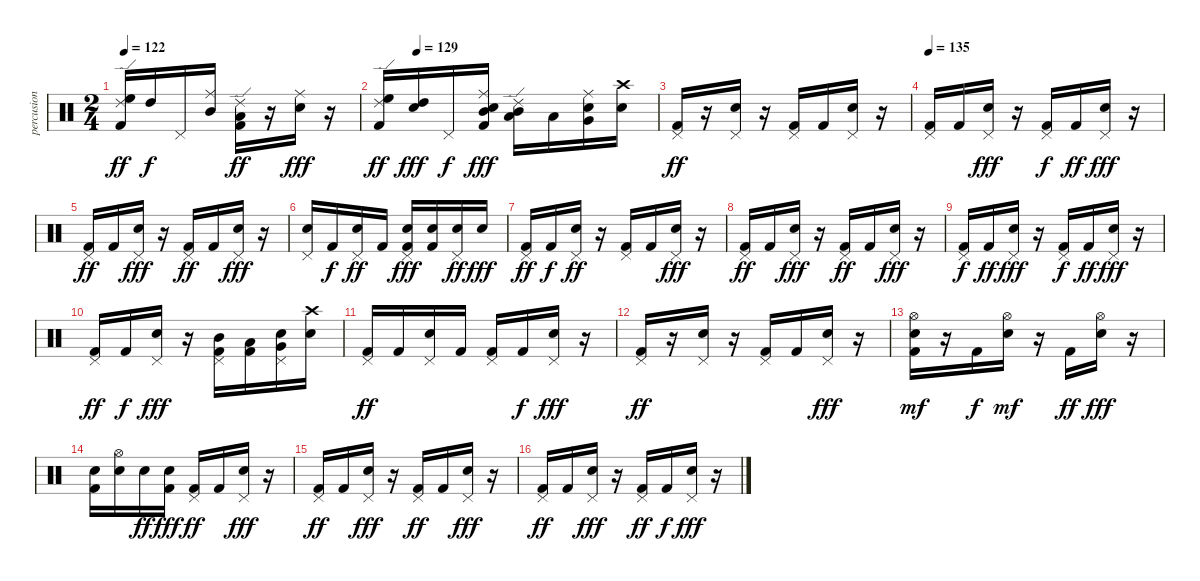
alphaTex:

\track ("percusion" "percusion") {instrument percussion}
\staff {score}
\articulation defaults
\ts (2 4)
\tempo 122
\clef neutral
\ks c
("Kick (hit) 2" "High Floor Tom (hit)" "Ride (edge) 2").16{dy ff} "High Tom (hit)".16{dy f} "Pedal Hi-Hat (hit)".16 ("Mid Tom (hit)" "Ride (middle)").16 ("Kick (hit) 2" "Ride (edge) 2" "Low Tom (hit)").16{dy ff} r.16 ("Electric Snare (hit)" "Ride (middle)").16{dy fff} r.16 |
\tempo (129 0.125)
("Kick (hit) 2" "High Floor Tom (hit)" "Ride (edge) 2").16{dy ff} ("Electric Snare (hit)" "High Tom (hit)").16{dy fff} "Pedal Hi-Hat (hit)".16{dy f} ("Kick (hit) 2" "Electric Snare (hit)" "Mid Tom (hit)" "Ride (middle)").16{dy fff} ("Mid Tom (hit)" "Ride (edge) 2" "Low Tom (hit)").16 "Low Tom (hit)".16 ("Electric Snare (hit)" "Very Low Tom (hit)" "Ride (middle)").16 ("Electric Snare (hit)" "Crash high (hit)").16 |
("Kick (hit) 2" "Pedal Hi-Hat (hit)").16{dy ff} r.16 ("Electric Snare (hit)" "Pedal Hi-Hat (hit)").16 r.16 ("Kick (hit) 2" "Pedal Hi-Hat (hit)").16 "Kick (hit) 2".16 ("Electric Snare (hit)" "Pedal Hi-Hat (hit)").16 r.16 |
\tempo 135
("Kick (hit) 2" "Pedal Hi-Hat (hit)").16 "Kick (hit) 2".16 ("Electric Snare (hit)" "Pedal Hi-Hat (hit)").16{dy fff} r.16 ("Kick (hit) 2" "Pedal Hi-Hat (hit)").16{dy f} "Kick (hit) 2".16{dy ff} ("Electric Snare (hit)" "Pedal Hi-Hat (hit)").16{dy fff} r.16 |
("Kick (hit) 2" "Pedal Hi-Hat (hit)").16{dy ff} "Kick (hit) 2".16 ("Electric Snare (hit)" "Pedal Hi-Hat (hit)").16{dy fff} r.16 ("Kick (hit) 2" "Pedal Hi-Hat (hit)").16{dy ff} "Kick (hit) 2".16 ("Electric Snare (hit)" "Pedal Hi-Hat (hit)").16{dy fff} r.16 |
("Electric Snare (hit)" "Pedal Hi-Hat (hit)").16 "Kick (hit) 2".16{dy f} ("Electric Snare (hit)" "Pedal Hi-Hat (hit)").16{dy ff} "Kick (hit) 2".16 ("Kick (hit) 2" "Electric Snare (hit)" "Pedal Hi-Hat (hit)").16{dy fff} ("Kick (hit) 2" "Electric Snare (hit)").16 ("Electric Snare (hit)" "Pedal Hi-Hat (hit)").16{dy ff} "Electric Snare (hit)".16{dy fff} |
("Kick (hit) 2" "Pedal Hi-Hat (hit)").16{dy ff} "Kick (hit) 2".16{dy f} ("Electric Snare (hit)" "Pedal Hi-Hat (hit)").16{dy ff} r.16 ("Kick (hit) 2" "Pedal Hi-Hat (hit)").16 "Kick (hit) 2".16 ("Electric Snare (hit)" "Pedal Hi-Hat (hit)").16{dy fff} r.16 |
("Kick (hit) 2" "Pedal Hi-Hat (hit)").16{dy ff} "Kick (hit) 2".16 ("Electric Snare (hit)" "Pedal Hi-Hat (hit)").16{dy fff} r.16 ("Kick (hit) 2" "Pedal Hi-Hat (hit)").16{dy ff} "Kick (hit) 2".16 ("Electric Snare (hit)" "Pedal Hi-Hat (hit)").16{dy fff} r.16 |
("Kick (hit) 2" "Pedal Hi-Hat (hit)").16{dy f} "Kick (hit) 2".16{dy ff} ("Electric Snare (hit)" "Pedal Hi-Hat (hit)").16{dy fff} r.16 ("Kick (hit) 2" "Pedal Hi-Hat (hit)").16{dy f} "Kick (hit) 2".16{dy ff} ("Electric Snare (hit)" "Pedal Hi-Hat (hit)").16{dy fff} r.16 |
("Kick (hit) 2" "Pedal Hi-Hat (hit)").16{dy ff} "Kick (hit) 2".16{dy f} ("Electric Snare (hit)" "Pedal Hi-Hat (hit)").16{dy fff} r.16 ("Kick (hit) 2" "Mid Tom (hit)" "Pedal Hi-Hat (hit)").16 ("Kick (hit) 2" "Low Tom (hit)").16 ("Electric Snare (hit)" "Very Low Tom (hit)" "Pedal Hi-Hat (hit)").16 ("Electric Snare (hit)" "Crash high (hit)").16 |
("Kick (hit) 2" "Pedal Hi-Hat (hit)").16{dy ff} "Kick (hit) 2".16 ("Electric Snare (hit)" "Pedal Hi-Hat (hit)").16 "Kick (hit) 2".16 ("Kick (hit) 2" "Pedal Hi-Hat (hit)").16 "Kick (hit) 2".16{dy f} ("Electric Snare (hit)" "Pedal Hi-Hat (hit)").16{dy fff} r.16 |
("Kick (hit) 2" "Pedal Hi-Hat (hit)").16{dy ff} r.16 ("Electric Snare (hit)" "Pedal Hi-Hat (hit)").16 r.16 ("Kick (hit) 2" "Pedal Hi-Hat (hit)").16 "Kick (hit) 2".16 ("Electric Snare (hit)" "Pedal Hi-Hat (hit)").16{dy fff} r.16 |
("Kick (hit) 2" "Electric Snare (hit)" "Hi-Hat (open)").16{dy mf} r.16 "Kick (hit) 2".16{dy f} ("Electric Snare (hit)" "Hi-Hat (open)").16{dy mf} r.16 "Kick (hit) 2".16{dy ff} ("Electric Snare (hit)" "Hi-Hat (open)").16{dy fff} r.16 |
("Kick (hit) 2" "Electric Snare (hit)").16 ("Electric Snare (hit)" "Hi-Hat (open)").16 "Electric Snare (hit)".16{dy ff} ("Kick (hit) 2" "Electric Snare (hit)").16{dy fff} ("Kick (hit) 2" "Pedal Hi-Hat (hit)").16{dy ff} "Kick (hit) 2".16 ("Electric Snare (hit)" "Pedal Hi-Hat (hit)").16{dy fff} r.16 |
("Kick (hit) 2" "Pedal Hi-Hat (hit)").16{dy ff} "Kick (hit) 2".16 ("Electric Snare (hit)" "Pedal Hi-Hat (hit)").16{dy fff} r.16 ("Kick (hit) 2" "Pedal Hi-Hat (hit)").16{dy ff} "Kick (hit) 2".16 ("Electric Snare (hit)" "Pedal Hi-Hat (hit)").16{dy fff} r.16 |
("Kick (hit) 2" "Pedal Hi-Hat (hit)").16{dy ff} "Kick (hit) 2".16 ("Electric Snare (hit)" "Pedal Hi-Hat (hit)").16{dy fff} r.16 ("Kick (hit) 2" "Pedal Hi-Hat (hit)").16{dy ff} "Kick (hit) 2".16{dy f} ("Electric Snare (hit)" "Pedal Hi-Hat (hit)").16{dy fff} r.16
